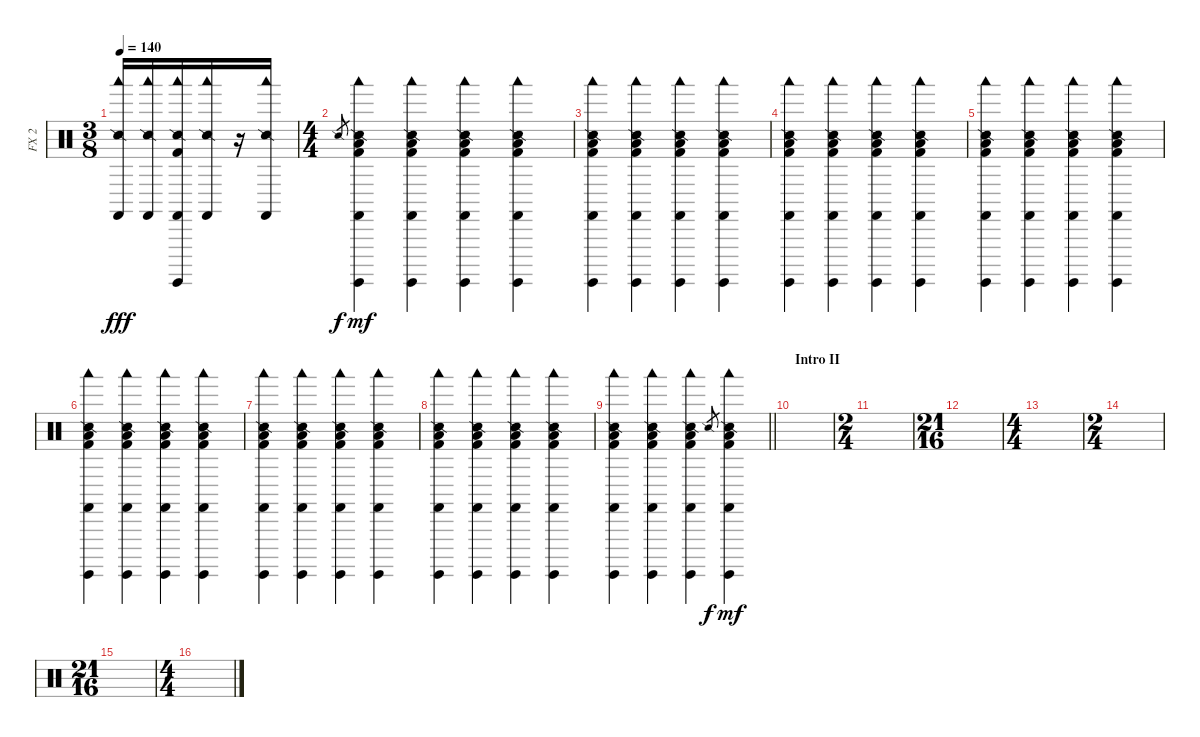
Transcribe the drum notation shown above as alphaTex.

\track ("FX 2" "FX 2") {instrument percussion}
\staff {score}
\articulation defaults
\ts (3 8)
\tempo 140
\clef neutral
\ks c
("Snare (side stick) 2" "Woodblock low (hit)" "Castanets (hit)").16{dy fff} ("Snare (side stick) 2" "Woodblock low (hit)" "Castanets (hit)").16 ("Snare (side stick) 2" "Woodblock low (hit)" "Castanets (hit)" "Kick (hit) 2" "Surdo (hit)").16 ("Snare (side stick) 2" "Woodblock low (hit)" "Castanets (hit)").16 r.16 ("Snare (side stick) 2" "Woodblock low (hit)" "Castanets (hit)").16 |
\ts (4 4)
"Snare (side stick) 2".8{gr dy f} ("Snare (side stick) 2" "Woodblock low (hit)" "Castanets (hit)" "Surdo (hit)" "Low Floor Tom (hit)" "Kick (hit) 2").4{dy mf} ("Snare (side stick) 2" "Woodblock low (hit)" "Castanets (hit)" "Surdo (hit)" "Low Floor Tom (hit)" "Kick (hit) 2").4 ("Snare (side stick) 2" "Woodblock low (hit)" "Castanets (hit)" "Surdo (hit)" "Low Floor Tom (hit)" "Kick (hit) 2").4 ("Snare (side stick) 2" "Woodblock low (hit)" "Castanets (hit)" "Surdo (hit)" "Low Floor Tom (hit)" "Kick (hit) 2").4 |
("Snare (side stick) 2" "Woodblock low (hit)" "Castanets (hit)" "Surdo (hit)" "Low Floor Tom (hit)" "Kick (hit) 2").4 ("Snare (side stick) 2" "Woodblock low (hit)" "Castanets (hit)" "Surdo (hit)" "Low Floor Tom (hit)" "Kick (hit) 2").4 ("Snare (side stick) 2" "Woodblock low (hit)" "Castanets (hit)" "Surdo (hit)" "Low Floor Tom (hit)" "Kick (hit) 2").4 ("Snare (side stick) 2" "Woodblock low (hit)" "Castanets (hit)" "Surdo (hit)" "Low Floor Tom (hit)" "Kick (hit) 2").4 |
("Snare (side stick) 2" "Woodblock low (hit)" "Castanets (hit)" "Surdo (hit)" "Low Floor Tom (hit)" "Kick (hit) 2").4 ("Snare (side stick) 2" "Woodblock low (hit)" "Castanets (hit)" "Surdo (hit)" "Low Floor Tom (hit)" "Kick (hit) 2").4 ("Snare (side stick) 2" "Woodblock low (hit)" "Castanets (hit)" "Surdo (hit)" "Low Floor Tom (hit)" "Kick (hit) 2").4 ("Snare (side stick) 2" "Woodblock low (hit)" "Castanets (hit)" "Surdo (hit)" "Low Floor Tom (hit)" "Kick (hit) 2").4 |
("Snare (side stick) 2" "Woodblock low (hit)" "Castanets (hit)" "Surdo (hit)" "Low Floor Tom (hit)" "Kick (hit) 2").4 ("Snare (side stick) 2" "Woodblock low (hit)" "Castanets (hit)" "Surdo (hit)" "Low Floor Tom (hit)" "Kick (hit) 2").4 ("Snare (side stick) 2" "Woodblock low (hit)" "Castanets (hit)" "Surdo (hit)" "Low Floor Tom (hit)" "Kick (hit) 2").4 ("Snare (side stick) 2" "Woodblock low (hit)" "Castanets (hit)" "Surdo (hit)" "Low Floor Tom (hit)" "Kick (hit) 2").4 |
("Snare (side stick) 2" "Woodblock low (hit)" "Castanets (hit)" "Surdo (hit)" "Low Floor Tom (hit)" "Kick (hit) 2").4 ("Snare (side stick) 2" "Woodblock low (hit)" "Castanets (hit)" "Surdo (hit)" "Low Floor Tom (hit)" "Kick (hit) 2").4 ("Snare (side stick) 2" "Woodblock low (hit)" "Castanets (hit)" "Surdo (hit)" "Low Floor Tom (hit)" "Kick (hit) 2").4 ("Snare (side stick) 2" "Woodblock low (hit)" "Castanets (hit)" "Surdo (hit)" "Low Floor Tom (hit)" "Kick (hit) 2").4 |
("Snare (side stick) 2" "Woodblock low (hit)" "Castanets (hit)" "Surdo (hit)" "Low Floor Tom (hit)" "Kick (hit) 2").4 ("Snare (side stick) 2" "Woodblock low (hit)" "Castanets (hit)" "Surdo (hit)" "Low Floor Tom (hit)" "Kick (hit) 2").4 ("Snare (side stick) 2" "Woodblock low (hit)" "Castanets (hit)" "Surdo (hit)" "Low Floor Tom (hit)" "Kick (hit) 2").4 ("Snare (side stick) 2" "Woodblock low (hit)" "Castanets (hit)" "Surdo (hit)" "Low Floor Tom (hit)" "Kick (hit) 2").4 |
("Snare (side stick) 2" "Woodblock low (hit)" "Castanets (hit)" "Surdo (hit)" "Low Floor Tom (hit)" "Kick (hit) 2").4 ("Snare (side stick) 2" "Woodblock low (hit)" "Castanets (hit)" "Surdo (hit)" "Low Floor Tom (hit)" "Kick (hit) 2").4 ("Snare (side stick) 2" "Woodblock low (hit)" "Castanets (hit)" "Surdo (hit)" "Low Floor Tom (hit)" "Kick (hit) 2").4 ("Snare (side stick) 2" "Woodblock low (hit)" "Castanets (hit)" "Surdo (hit)" "Low Floor Tom (hit)" "Kick (hit) 2").4 |
\barLineRight lightlight
("Snare (side stick) 2" "Woodblock low (hit)" "Castanets (hit)" "Surdo (hit)" "Low Floor Tom (hit)" "Kick (hit) 2").4 ("Snare (side stick) 2" "Woodblock low (hit)" "Castanets (hit)" "Surdo (hit)" "Low Floor Tom (hit)" "Kick (hit) 2").4 ("Snare (side stick) 2" "Woodblock low (hit)" "Castanets (hit)" "Surdo (hit)" "Low Floor Tom (hit)" "Kick (hit) 2").4 "Snare (side stick) 2".8{gr dy f} ("Snare (side stick) 2" "Woodblock low (hit)" "Castanets (hit)" "Surdo (hit)" "Low Floor Tom (hit)" "Kick (hit) 2").4{dy mf} |
\section ("" "Intro II")
|
\ts (2 4)
|
\ts (21 16)
|
\ts (4 4)
|
\ts (2 4)
|
\ts (21 16)
|
\ts (4 4)
